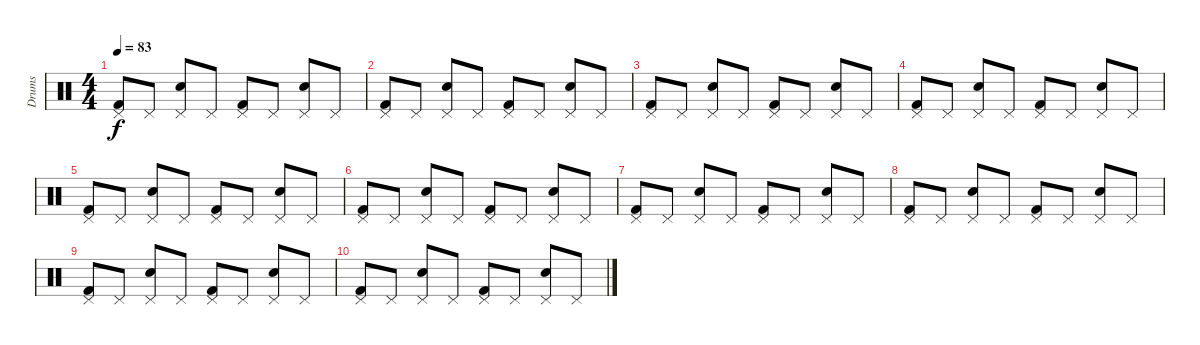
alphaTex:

\track ("Drums" "Drums") {instrument percussion}
\staff {score}
\articulation defaults
\ts (4 4)
\tempo 83
\clef neutral
\ks c
("Pedal Hi-Hat (hit)" "Kick (hit) 2").8{dy f} "Pedal Hi-Hat (hit)".8 ("Pedal Hi-Hat (hit)" "Electric Snare (hit)").8 "Pedal Hi-Hat (hit)".8 ("Pedal Hi-Hat (hit)" "Kick (hit) 2").8 "Pedal Hi-Hat (hit)".8 ("Pedal Hi-Hat (hit)" "Electric Snare (hit)").8 "Pedal Hi-Hat (hit)".8 |
("Pedal Hi-Hat (hit)" "Kick (hit) 2").8 "Pedal Hi-Hat (hit)".8 ("Pedal Hi-Hat (hit)" "Electric Snare (hit)").8 "Pedal Hi-Hat (hit)".8 ("Pedal Hi-Hat (hit)" "Kick (hit) 2").8 "Pedal Hi-Hat (hit)".8 ("Pedal Hi-Hat (hit)" "Electric Snare (hit)").8 "Pedal Hi-Hat (hit)".8 |
("Pedal Hi-Hat (hit)" "Kick (hit) 2").8 "Pedal Hi-Hat (hit)".8 ("Pedal Hi-Hat (hit)" "Electric Snare (hit)").8 "Pedal Hi-Hat (hit)".8 ("Pedal Hi-Hat (hit)" "Kick (hit) 2").8 "Pedal Hi-Hat (hit)".8 ("Pedal Hi-Hat (hit)" "Electric Snare (hit)").8 "Pedal Hi-Hat (hit)".8 |
("Pedal Hi-Hat (hit)" "Kick (hit) 2").8 "Pedal Hi-Hat (hit)".8 ("Pedal Hi-Hat (hit)" "Electric Snare (hit)").8 "Pedal Hi-Hat (hit)".8 ("Pedal Hi-Hat (hit)" "Kick (hit) 2").8 "Pedal Hi-Hat (hit)".8 ("Pedal Hi-Hat (hit)" "Electric Snare (hit)").8 "Pedal Hi-Hat (hit)".8 |
("Pedal Hi-Hat (hit)" "Kick (hit) 2").8 "Pedal Hi-Hat (hit)".8 ("Pedal Hi-Hat (hit)" "Electric Snare (hit)").8 "Pedal Hi-Hat (hit)".8 ("Pedal Hi-Hat (hit)" "Kick (hit) 2").8 "Pedal Hi-Hat (hit)".8 ("Pedal Hi-Hat (hit)" "Electric Snare (hit)").8 "Pedal Hi-Hat (hit)".8 |
("Pedal Hi-Hat (hit)" "Kick (hit) 2").8 "Pedal Hi-Hat (hit)".8 ("Pedal Hi-Hat (hit)" "Electric Snare (hit)").8 "Pedal Hi-Hat (hit)".8 ("Pedal Hi-Hat (hit)" "Kick (hit) 2").8 "Pedal Hi-Hat (hit)".8 ("Pedal Hi-Hat (hit)" "Electric Snare (hit)").8 "Pedal Hi-Hat (hit)".8 |
("Pedal Hi-Hat (hit)" "Kick (hit) 2").8 "Pedal Hi-Hat (hit)".8 ("Pedal Hi-Hat (hit)" "Electric Snare (hit)").8 "Pedal Hi-Hat (hit)".8 ("Pedal Hi-Hat (hit)" "Kick (hit) 2").8 "Pedal Hi-Hat (hit)".8 ("Pedal Hi-Hat (hit)" "Electric Snare (hit)").8 "Pedal Hi-Hat (hit)".8 |
("Pedal Hi-Hat (hit)" "Kick (hit) 2").8 "Pedal Hi-Hat (hit)".8 ("Pedal Hi-Hat (hit)" "Electric Snare (hit)").8 "Pedal Hi-Hat (hit)".8 ("Pedal Hi-Hat (hit)" "Kick (hit) 2").8 "Pedal Hi-Hat (hit)".8 ("Pedal Hi-Hat (hit)" "Electric Snare (hit)").8 "Pedal Hi-Hat (hit)".8 |
("Pedal Hi-Hat (hit)" "Kick (hit) 2").8 "Pedal Hi-Hat (hit)".8 ("Pedal Hi-Hat (hit)" "Electric Snare (hit)").8 "Pedal Hi-Hat (hit)".8 ("Pedal Hi-Hat (hit)" "Kick (hit) 2").8 "Pedal Hi-Hat (hit)".8 ("Pedal Hi-Hat (hit)" "Electric Snare (hit)").8 "Pedal Hi-Hat (hit)".8 |
("Pedal Hi-Hat (hit)" "Kick (hit) 2").8 "Pedal Hi-Hat (hit)".8 ("Pedal Hi-Hat (hit)" "Electric Snare (hit)").8 "Pedal Hi-Hat (hit)".8 ("Pedal Hi-Hat (hit)" "Kick (hit) 2").8 "Pedal Hi-Hat (hit)".8 ("Pedal Hi-Hat (hit)" "Electric Snare (hit)").8 "Pedal Hi-Hat (hit)".8
